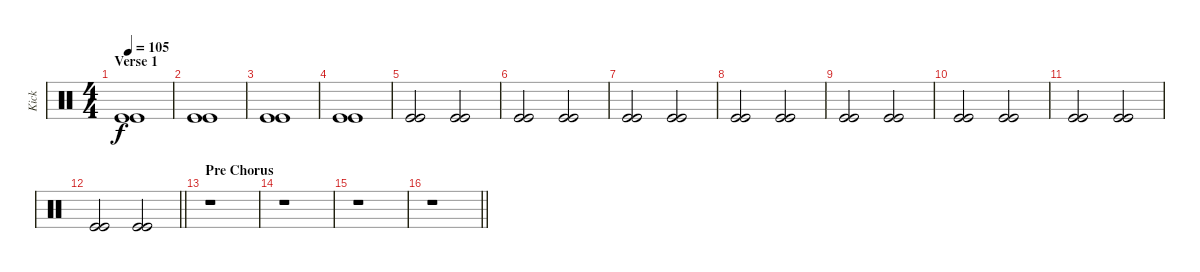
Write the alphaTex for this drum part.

\track ("Kick" "Kick") {instrument percussion}
\staff {score}
\articulation defaults
\ts (4 4)
\section ("" "Verse 1")
\tempo 105
\clef neutral
\ks c
("Kick (hit)" "Kick (hit)").1{dy f} |
("Kick (hit)" "Kick (hit)").1 |
("Kick (hit)" "Kick (hit)").1 |
("Kick (hit)" "Kick (hit)").1 |
("Kick (hit)" "Kick (hit)").2{beam merge} ("Kick (hit)" "Kick (hit)").2 |
("Kick (hit)" "Kick (hit)").2{beam merge} ("Kick (hit)" "Kick (hit)").2 |
("Kick (hit)" "Kick (hit)").2{beam merge} ("Kick (hit)" "Kick (hit)").2 |
("Kick (hit)" "Kick (hit)").2 ("Kick (hit)" "Kick (hit)").2 |
("Kick (hit)" "Kick (hit)").2{beam merge} ("Kick (hit)" "Kick (hit)").2 |
("Kick (hit)" "Kick (hit)").2{beam merge} ("Kick (hit)" "Kick (hit)").2 |
("Kick (hit)" "Kick (hit)").2{beam merge} ("Kick (hit)" "Kick (hit)").2 |
\barLineRight lightlight
("Kick (hit)" "Kick (hit)").2 ("Kick (hit)" "Kick (hit)").2 |
\section ("" "Pre Chorus")
r.1 |
r.1 |
r.1 |
\barLineRight lightlight
r.1
